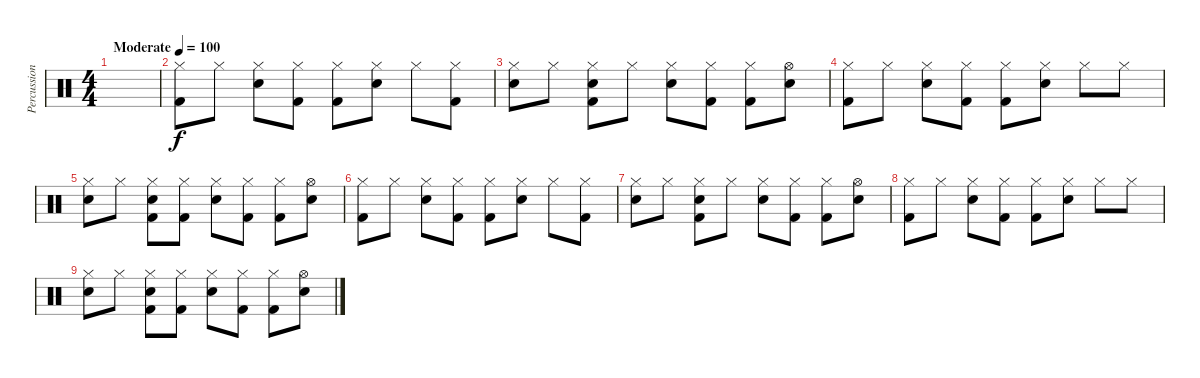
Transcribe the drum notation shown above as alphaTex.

\track ("Percussion" "Percussion") {instrument percussion}
\staff {score}
\articulation defaults
\ts (4 4)
\tempo (100 "Moderate")
\clef neutral
\ks c
|
("Kick (hit) 2" "Hi-Hat (closed)").8 "Hi-Hat (closed)".8 ("Electric Snare (hit)" "Hi-Hat (closed)").8 ("Kick (hit) 2" "Hi-Hat (closed)").8 ("Kick (hit) 2" "Hi-Hat (closed)").8 ("Electric Snare (hit)" "Hi-Hat (closed)").8 "Hi-Hat (closed)".8 ("Kick (hit) 2" "Hi-Hat (closed)").8 |
("Electric Snare (hit)" "Hi-Hat (closed)").8 "Hi-Hat (closed)".8 ("Kick (hit) 2" "Electric Snare (hit)" "Hi-Hat (closed)").8 "Hi-Hat (closed)".8 ("Electric Snare (hit)" "Hi-Hat (closed)").8 ("Kick (hit) 2" "Hi-Hat (closed)").8 ("Kick (hit) 2" "Hi-Hat (closed)").8 ("Electric Snare (hit)" "Hi-Hat (open)").8 |
("Kick (hit) 2" "Hi-Hat (closed)").8 "Hi-Hat (closed)".8 ("Electric Snare (hit)" "Hi-Hat (closed)").8 ("Kick (hit) 2" "Hi-Hat (closed)").8 ("Kick (hit) 2" "Hi-Hat (closed)").8 ("Electric Snare (hit)" "Hi-Hat (closed)").8 "Hi-Hat (closed)".8 "Hi-Hat (closed)".8 |
("Electric Snare (hit)" "Hi-Hat (closed)").8 "Hi-Hat (closed)".8 ("Kick (hit) 2" "Electric Snare (hit)" "Hi-Hat (closed)").8 ("Kick (hit) 2" "Hi-Hat (closed)").8 ("Electric Snare (hit)" "Hi-Hat (closed)").8 ("Kick (hit) 2" "Hi-Hat (closed)").8 ("Kick (hit) 2" "Hi-Hat (closed)").8 ("Electric Snare (hit)" "Hi-Hat (open)").8 |
("Kick (hit) 2" "Hi-Hat (closed)").8 "Hi-Hat (closed)".8 ("Electric Snare (hit)" "Hi-Hat (closed)").8 ("Kick (hit) 2" "Hi-Hat (closed)").8 ("Kick (hit) 2" "Hi-Hat (closed)").8 ("Electric Snare (hit)" "Hi-Hat (closed)").8 "Hi-Hat (closed)".8 ("Kick (hit) 2" "Hi-Hat (closed)").8 |
("Electric Snare (hit)" "Hi-Hat (closed)").8 "Hi-Hat (closed)".8 ("Kick (hit) 2" "Electric Snare (hit)" "Hi-Hat (closed)").8 "Hi-Hat (closed)".8 ("Electric Snare (hit)" "Hi-Hat (closed)").8 ("Kick (hit) 2" "Hi-Hat (closed)").8 ("Kick (hit) 2" "Hi-Hat (closed)").8 ("Electric Snare (hit)" "Hi-Hat (open)").8 |
("Kick (hit) 2" "Hi-Hat (closed)").8 "Hi-Hat (closed)".8 ("Electric Snare (hit)" "Hi-Hat (closed)").8 ("Kick (hit) 2" "Hi-Hat (closed)").8 ("Kick (hit) 2" "Hi-Hat (closed)").8 ("Electric Snare (hit)" "Hi-Hat (closed)").8 "Hi-Hat (closed)".8 "Hi-Hat (closed)".8 |
("Electric Snare (hit)" "Hi-Hat (closed)").8 "Hi-Hat (closed)".8 ("Kick (hit) 2" "Electric Snare (hit)" "Hi-Hat (closed)").8 ("Kick (hit) 2" "Hi-Hat (closed)").8 ("Electric Snare (hit)" "Hi-Hat (closed)").8 ("Kick (hit) 2" "Hi-Hat (closed)").8 ("Kick (hit) 2" "Hi-Hat (closed)").8 ("Electric Snare (hit)" "Hi-Hat (open)").8
